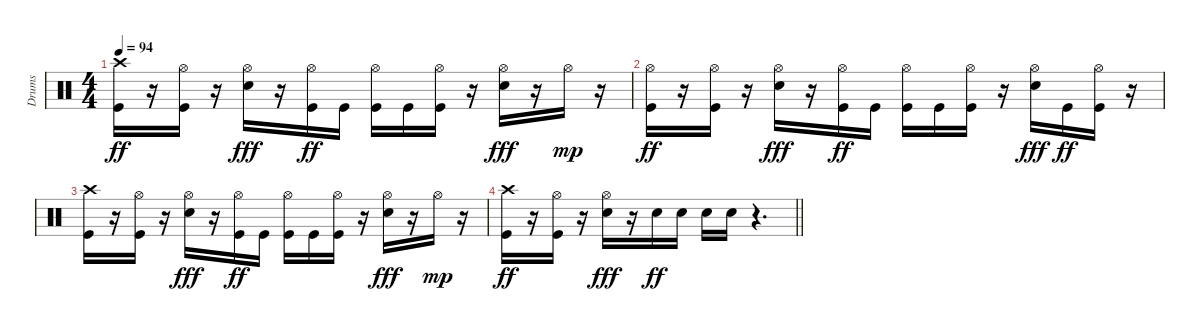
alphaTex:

\track ("Drums" "Drums") {instrument percussion}
\staff {score}
\articulation defaults
\ts (4 4)
\tempo 94
\clef neutral
\ks c
("Crash high (hit)" "Kick (hit)").16{dy ff} r.16 ("Hi-Hat (open)" "Kick (hit)").16 r.16 ("Hi-Hat (open)" "Electric Snare (hit)").16{dy fff} r.16 ("Hi-Hat (open)" "Kick (hit)").16{dy ff} "Kick (hit)".16 ("Hi-Hat (open)" "Kick (hit)").16 "Kick (hit)".16 ("Hi-Hat (open)" "Kick (hit)").16 r.16 ("Hi-Hat (open)" "Electric Snare (hit)").16{dy fff} r.16 "Hi-Hat (open)".16{dy mp} r.16 |
("Hi-Hat (open)" "Kick (hit)").16{dy ff} r.16 ("Hi-Hat (open)" "Kick (hit)").16 r.16 ("Hi-Hat (open)" "Electric Snare (hit)").16{dy fff} r.16 ("Hi-Hat (open)" "Kick (hit)").16{dy ff} "Kick (hit)".16 ("Hi-Hat (open)" "Kick (hit)").16 "Kick (hit)".16 ("Hi-Hat (open)" "Kick (hit)").16 r.16 ("Hi-Hat (open)" "Electric Snare (hit)").16{dy fff} "Kick (hit)".16{dy ff} ("Hi-Hat (open)" "Kick (hit)").16 r.16 |
("Crash high (hit)" "Kick (hit)").16 r.16 ("Hi-Hat (open)" "Kick (hit)").16 r.16 ("Hi-Hat (open)" "Electric Snare (hit)").16{dy fff} r.16 ("Hi-Hat (open)" "Kick (hit)").16{dy ff} "Kick (hit)".16 ("Hi-Hat (open)" "Kick (hit)").16 "Kick (hit)".16 ("Hi-Hat (open)" "Kick (hit)").16 r.16 ("Hi-Hat (open)" "Electric Snare (hit)").16{dy fff} r.16 "Hi-Hat (open)".16{dy mp} r.16 |
\barLineRight lightlight
("Crash high (hit)" "Kick (hit)").16{dy ff} r.16 ("Hi-Hat (open)" "Kick (hit)").16 r.16 ("Hi-Hat (open)" "Electric Snare (hit)").16{dy fff} r.16 "Electric Snare (hit)".16{dy ff} "Electric Snare (hit)".16 "Electric Snare (hit)".16 "Electric Snare (hit)".16 r.4{d}
